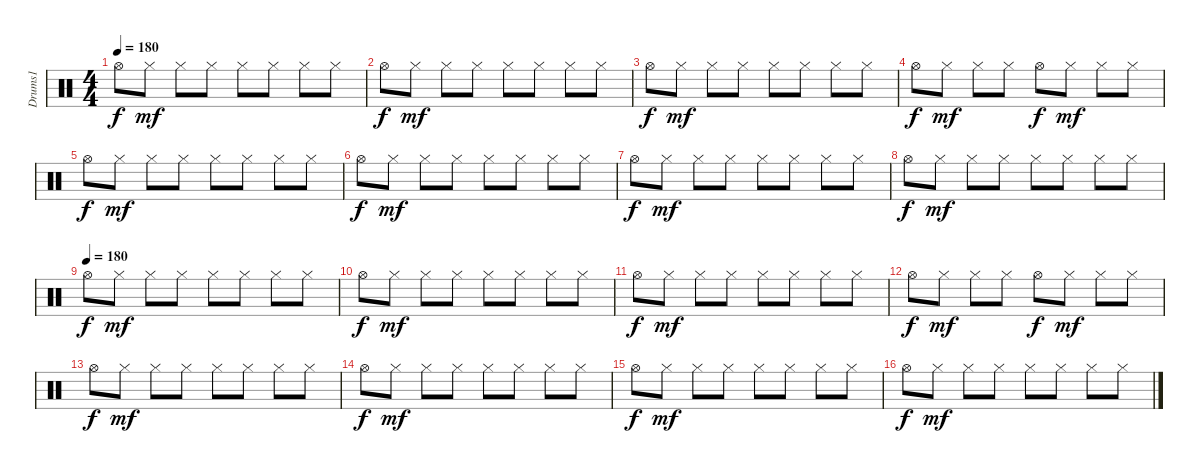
\track ("Drums1" "Drums1") {instrument percussion}
\staff {score}
\articulation defaults
\ts (4 4)
\tempo 180
\clef neutral
\ks c "Hi-Hat (open)".8{dy f} "Hi-Hat (closed)".8{dy mf} "Hi-Hat (closed)".8 "Hi-Hat (closed)".8 "Hi-Hat (closed)".8 "Hi-Hat (closed)".8 "Hi-Hat (closed)".8 "Hi-Hat (closed)".8
|
"Hi-Hat (open)".8{dy f} "Hi-Hat (closed)".8{dy mf} "Hi-Hat (closed)".8 "Hi-Hat (closed)".8 "Hi-Hat (closed)".8 "Hi-Hat (closed)".8 "Hi-Hat (closed)".8 "Hi-Hat (closed)".8 |
"Hi-Hat (open)".8{dy f} "Hi-Hat (closed)".8{dy mf} "Hi-Hat (closed)".8 "Hi-Hat (closed)".8 "Hi-Hat (closed)".8 "Hi-Hat (closed)".8 "Hi-Hat (closed)".8 "Hi-Hat (closed)".8 |
"Hi-Hat (open)".8{dy f} "Hi-Hat (closed)".8{dy mf} "Hi-Hat (closed)".8 "Hi-Hat (closed)".8 "Hi-Hat (open)".8{dy f} "Hi-Hat (closed)".8{dy mf} "Hi-Hat (closed)".8 "Hi-Hat (closed)".8 |
"Hi-Hat (open)".8{dy f} "Hi-Hat (closed)".8{dy mf} "Hi-Hat (closed)".8 "Hi-Hat (closed)".8 "Hi-Hat (closed)".8 "Hi-Hat (closed)".8 "Hi-Hat (closed)".8 "Hi-Hat (closed)".8 |
"Hi-Hat (open)".8{dy f} "Hi-Hat (closed)".8{dy mf} "Hi-Hat (closed)".8 "Hi-Hat (closed)".8 "Hi-Hat (closed)".8 "Hi-Hat (closed)".8 "Hi-Hat (closed)".8 "Hi-Hat (closed)".8 |
"Hi-Hat (open)".8{dy f} "Hi-Hat (closed)".8{dy mf} "Hi-Hat (closed)".8 "Hi-Hat (closed)".8 "Hi-Hat (closed)".8 "Hi-Hat (closed)".8 "Hi-Hat (closed)".8 "Hi-Hat (closed)".8 |
"Hi-Hat (open)".8{dy f} "Hi-Hat (closed)".8{dy mf} "Hi-Hat (closed)".8 "Hi-Hat (closed)".8 "Hi-Hat (closed)".8 "Hi-Hat (closed)".8 "Hi-Hat (closed)".8 "Hi-Hat (closed)".8 |
\tempo (180)
"Hi-Hat (open)".8{dy f} "Hi-Hat (closed)".8{dy mf} "Hi-Hat (closed)".8 "Hi-Hat (closed)".8 "Hi-Hat (closed)".8 "Hi-Hat (closed)".8 "Hi-Hat (closed)".8 "Hi-Hat (closed)".8 |
"Hi-Hat (open)".8{dy f} "Hi-Hat (closed)".8{dy mf} "Hi-Hat (closed)".8 "Hi-Hat (closed)".8 "Hi-Hat (closed)".8 "Hi-Hat (closed)".8 "Hi-Hat (closed)".8 "Hi-Hat (closed)".8 |
"Hi-Hat (open)".8{dy f} "Hi-Hat (closed)".8{dy mf} "Hi-Hat (closed)".8 "Hi-Hat (closed)".8 "Hi-Hat (closed)".8 "Hi-Hat (closed)".8 "Hi-Hat (closed)".8 "Hi-Hat (closed)".8 |
"Hi-Hat (open)".8{dy f} "Hi-Hat (closed)".8{dy mf} "Hi-Hat (closed)".8 "Hi-Hat (closed)".8 "Hi-Hat (open)".8{dy f} "Hi-Hat (closed)".8{dy mf} "Hi-Hat (closed)".8 "Hi-Hat (closed)".8 |
"Hi-Hat (open)".8{dy f} "Hi-Hat (closed)".8{dy mf} "Hi-Hat (closed)".8 "Hi-Hat (closed)".8 "Hi-Hat (closed)".8 "Hi-Hat (closed)".8 "Hi-Hat (closed)".8 "Hi-Hat (closed)".8 |
"Hi-Hat (open)".8{dy f} "Hi-Hat (closed)".8{dy mf} "Hi-Hat (closed)".8 "Hi-Hat (closed)".8 "Hi-Hat (closed)".8 "Hi-Hat (closed)".8 "Hi-Hat (closed)".8 "Hi-Hat (closed)".8 |
"Hi-Hat (open)".8{dy f} "Hi-Hat (closed)".8{dy mf} "Hi-Hat (closed)".8 "Hi-Hat (closed)".8 "Hi-Hat (closed)".8 "Hi-Hat (closed)".8 "Hi-Hat (closed)".8 "Hi-Hat (closed)".8 |
"Hi-Hat (open)".8{dy f} "Hi-Hat (closed)".8{dy mf} "Hi-Hat (closed)".8 "Hi-Hat (closed)".8 "Hi-Hat (closed)".8 "Hi-Hat (closed)".8 "Hi-Hat (closed)".8 "Hi-Hat (closed)".8
